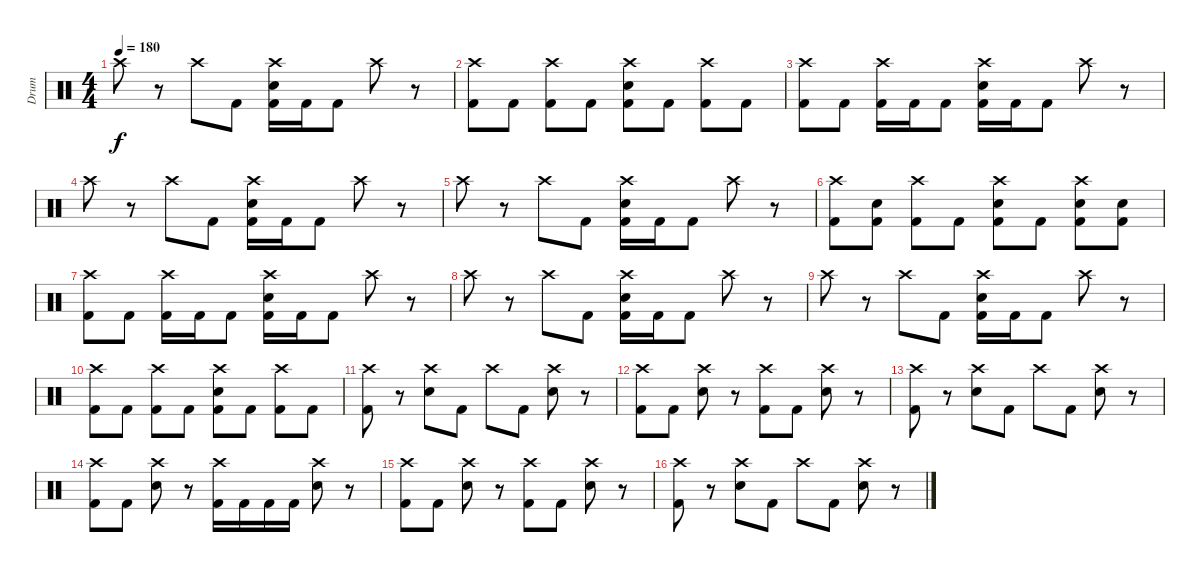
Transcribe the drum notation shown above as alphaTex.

\track ("Drum" "Drum") {instrument percussion}
\staff {score}
\articulation defaults
\ts (4 4)
\tempo 180
\clef neutral
\ks c "Crash high (hit)".8{dy f}
r.8 "Crash high (hit)".8 "Kick (hit) 2".8 ("Crash high (hit)" "Snare (hit) 2" "Kick (hit) 2").16 "Kick (hit) 2".16 "Kick (hit) 2".8 "Crash high (hit)".8 r.8 |
("Crash high (hit)" "Kick (hit) 2").8 "Kick (hit) 2".8 ("Crash high (hit)" "Kick (hit) 2").8 "Kick (hit) 2".8 ("Crash high (hit)" "Snare (hit) 2" "Kick (hit) 2").8 "Kick (hit) 2".8 ("Crash high (hit)" "Kick (hit) 2").8 "Kick (hit) 2".8 |
("Crash high (hit)" "Kick (hit) 2").8 "Kick (hit) 2".8 ("Crash high (hit)" "Kick (hit) 2").16 "Kick (hit) 2".16 "Kick (hit) 2".8 ("Crash high (hit)" "Snare (hit) 2" "Kick (hit) 2").16 "Kick (hit) 2".16 "Kick (hit) 2".8 "Crash high (hit)".8 r.8 |
"Crash high (hit)".8 r.8 "Crash high (hit)".8 "Kick (hit) 2".8 ("Crash high (hit)" "Snare (hit) 2" "Kick (hit) 2").16 "Kick (hit) 2".16 "Kick (hit) 2".8 "Crash high (hit)".8 r.8 |
"Crash high (hit)".8 r.8 "Crash high (hit)".8 "Kick (hit) 2".8 ("Crash high (hit)" "Snare (hit) 2" "Kick (hit) 2").16 "Kick (hit) 2".16 "Kick (hit) 2".8 "Crash high (hit)".8 r.8 |
("Crash high (hit)" "Kick (hit) 2").8 ("Snare (hit) 2" "Kick (hit) 2").8 ("Crash high (hit)" "Kick (hit) 2").8 "Kick (hit) 2".8 ("Crash high (hit)" "Snare (hit) 2" "Kick (hit) 2").8 "Kick (hit) 2".8 ("Crash high (hit)" "Snare (hit) 2" "Kick (hit) 2").8 ("Snare (hit) 2" "Kick (hit) 2").8 |
("Crash high (hit)" "Kick (hit) 2").8 "Kick (hit) 2".8 ("Crash high (hit)" "Kick (hit) 2").16 "Kick (hit) 2".16 "Kick (hit) 2".8 ("Crash high (hit)" "Snare (hit) 2" "Kick (hit) 2").16 "Kick (hit) 2".16 "Kick (hit) 2".8 "Crash high (hit)".8 r.8 |
"Crash high (hit)".8 r.8 "Crash high (hit)".8 "Kick (hit) 2".8 ("Crash high (hit)" "Snare (hit) 2" "Kick (hit) 2").16 "Kick (hit) 2".16 "Kick (hit) 2".8 "Crash high (hit)".8 r.8 |
"Crash high (hit)".8 r.8 "Crash high (hit)".8 "Kick (hit) 2".8 ("Crash high (hit)" "Snare (hit) 2" "Kick (hit) 2").16 "Kick (hit) 2".16 "Kick (hit) 2".8 "Crash high (hit)".8 r.8 |
("Crash high (hit)" "Kick (hit) 2").8 "Kick (hit) 2".8 ("Crash high (hit)" "Kick (hit) 2").8 "Kick (hit) 2".8 ("Crash high (hit)" "Snare (hit) 2" "Kick (hit) 2").8 "Kick (hit) 2".8 ("Crash high (hit)" "Kick (hit) 2").8 "Kick (hit) 2".8 |
("Crash high (hit)" "Kick (hit) 2").8 r.8 ("Crash high (hit)" "Snare (hit) 2").8 "Kick (hit) 2".8 "Crash high (hit)".8 "Kick (hit) 2".8 ("Crash high (hit)" "Snare (hit) 2").8 r.8 |
("Crash high (hit)" "Kick (hit) 2").8 "Kick (hit) 2".8 ("Crash high (hit)" "Snare (hit) 2").8 r.8 ("Crash high (hit)" "Kick (hit) 2").8 "Kick (hit) 2".8 ("Crash high (hit)" "Snare (hit) 2").8 r.8 |
("Crash high (hit)" "Kick (hit) 2").8 r.8 ("Crash high (hit)" "Snare (hit) 2").8 "Kick (hit) 2".8 "Crash high (hit)".8 "Kick (hit) 2".8 ("Crash high (hit)" "Snare (hit) 2").8 r.8 |
("Crash high (hit)" "Kick (hit) 2").8 "Kick (hit) 2".8 ("Crash high (hit)" "Snare (hit) 2").8 r.8 ("Crash high (hit)" "Kick (hit) 2").16 "Kick (hit) 2".16 "Kick (hit) 2".16 "Kick (hit) 2".16 ("Crash high (hit)" "Snare (hit) 2").8 r.8 |
("Crash high (hit)" "Kick (hit) 2").8 "Kick (hit) 2".8 ("Crash high (hit)" "Snare (hit) 2").8 r.8 ("Crash high (hit)" "Kick (hit) 2").8 "Kick (hit) 2".8 ("Crash high (hit)" "Snare (hit) 2").8 r.8 |
("Crash high (hit)" "Kick (hit) 2").8 r.8 ("Crash high (hit)" "Snare (hit) 2").8 "Kick (hit) 2".8 "Crash high (hit)".8 "Kick (hit) 2".8 ("Crash high (hit)" "Snare (hit) 2").8 r.8
